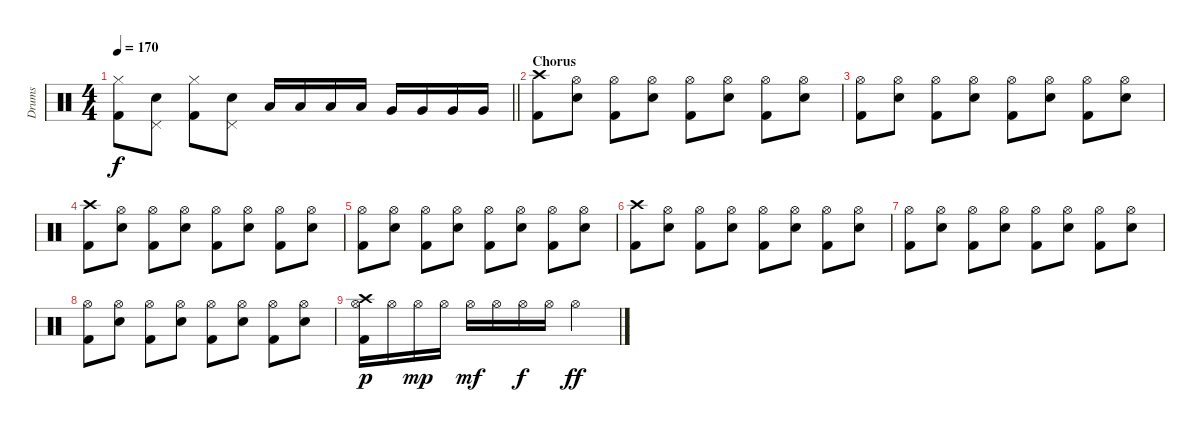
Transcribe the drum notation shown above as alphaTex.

\track ("Drums" "Drums") {instrument percussion}
\staff {score}
\articulation defaults
\ts (4 4)
\tempo 170
\clef neutral
\barLineRight lightlight
\ks c
("Hi-Hat (closed)" "Kick (hit) 2").8{dy f} ("Pedal Hi-Hat (hit)" "Electric Snare (hit)").8 ("Hi-Hat (closed)" "Kick (hit) 2").8 ("Pedal Hi-Hat (hit)" "Electric Snare (hit)").8 "Low Tom (hit)".16 "Low Tom (hit)".16 "Low Tom (hit)".16 "Low Tom (hit)".16 "Very Low Tom (hit)".16 "Very Low Tom (hit)".16 "Very Low Tom (hit)".16 "Very Low Tom (hit)".16 |
\section ("" "Chorus")
("Crash high (hit)" "Kick (hit) 2").8 ("Hi-Hat (open)" "Electric Snare (hit)").8 ("Hi-Hat (open)" "Kick (hit) 2").8 ("Hi-Hat (open)" "Electric Snare (hit)").8 ("Hi-Hat (open)" "Kick (hit) 2").8 ("Hi-Hat (open)" "Electric Snare (hit)").8 ("Hi-Hat (open)" "Kick (hit) 2").8 ("Hi-Hat (open)" "Electric Snare (hit)").8 |
("Hi-Hat (open)" "Kick (hit) 2").8 ("Hi-Hat (open)" "Electric Snare (hit)").8 ("Hi-Hat (open)" "Kick (hit) 2").8 ("Hi-Hat (open)" "Electric Snare (hit)").8 ("Hi-Hat (open)" "Kick (hit) 2").8 ("Hi-Hat (open)" "Electric Snare (hit)").8 ("Hi-Hat (open)" "Kick (hit) 2").8 ("Hi-Hat (open)" "Electric Snare (hit)").8 |
("Crash high (hit)" "Kick (hit) 2").8 ("Hi-Hat (open)" "Electric Snare (hit)").8 ("Hi-Hat (open)" "Kick (hit) 2").8 ("Hi-Hat (open)" "Electric Snare (hit)").8 ("Hi-Hat (open)" "Kick (hit) 2").8 ("Hi-Hat (open)" "Electric Snare (hit)").8 ("Hi-Hat (open)" "Kick (hit) 2").8 ("Hi-Hat (open)" "Electric Snare (hit)").8 |
("Hi-Hat (open)" "Kick (hit) 2").8 ("Hi-Hat (open)" "Electric Snare (hit)").8 ("Hi-Hat (open)" "Kick (hit) 2").8 ("Hi-Hat (open)" "Electric Snare (hit)").8 ("Hi-Hat (open)" "Kick (hit) 2").8 ("Hi-Hat (open)" "Electric Snare (hit)").8 ("Hi-Hat (open)" "Kick (hit) 2").8 ("Hi-Hat (open)" "Electric Snare (hit)").8 |
("Crash high (hit)" "Kick (hit) 2").8 ("Hi-Hat (open)" "Electric Snare (hit)").8 ("Hi-Hat (open)" "Kick (hit) 2").8 ("Hi-Hat (open)" "Electric Snare (hit)").8 ("Hi-Hat (open)" "Kick (hit) 2").8 ("Hi-Hat (open)" "Electric Snare (hit)").8 ("Hi-Hat (open)" "Kick (hit) 2").8 ("Hi-Hat (open)" "Electric Snare (hit)").8 |
("Hi-Hat (open)" "Kick (hit) 2").8 ("Hi-Hat (open)" "Electric Snare (hit)").8 ("Hi-Hat (open)" "Kick (hit) 2").8 ("Hi-Hat (open)" "Electric Snare (hit)").8 ("Hi-Hat (open)" "Kick (hit) 2").8 ("Hi-Hat (open)" "Electric Snare (hit)").8 ("Hi-Hat (open)" "Kick (hit) 2").8 ("Hi-Hat (open)" "Electric Snare (hit)").8 |
("Hi-Hat (open)" "Kick (hit) 2").8 ("Hi-Hat (open)" "Electric Snare (hit)").8 ("Hi-Hat (open)" "Kick (hit) 2").8 ("Hi-Hat (open)" "Electric Snare (hit)").8 ("Hi-Hat (open)" "Kick (hit) 2").8 ("Hi-Hat (open)" "Electric Snare (hit)").8 ("Hi-Hat (open)" "Kick (hit) 2").8 ("Hi-Hat (open)" "Electric Snare (hit)").8 |
("Hi-Hat (open)" "Crash high (hit)" "Kick (hit) 2").16{dy p} "Hi-Hat (open)".16 "Hi-Hat (open)".16{dy mp} "Hi-Hat (open)".16 "Hi-Hat (open)".16{dy mf} "Hi-Hat (open)".16 "Hi-Hat (open)".16{dy f} "Hi-Hat (open)".16 "Hi-Hat (open)".2{dy ff}
